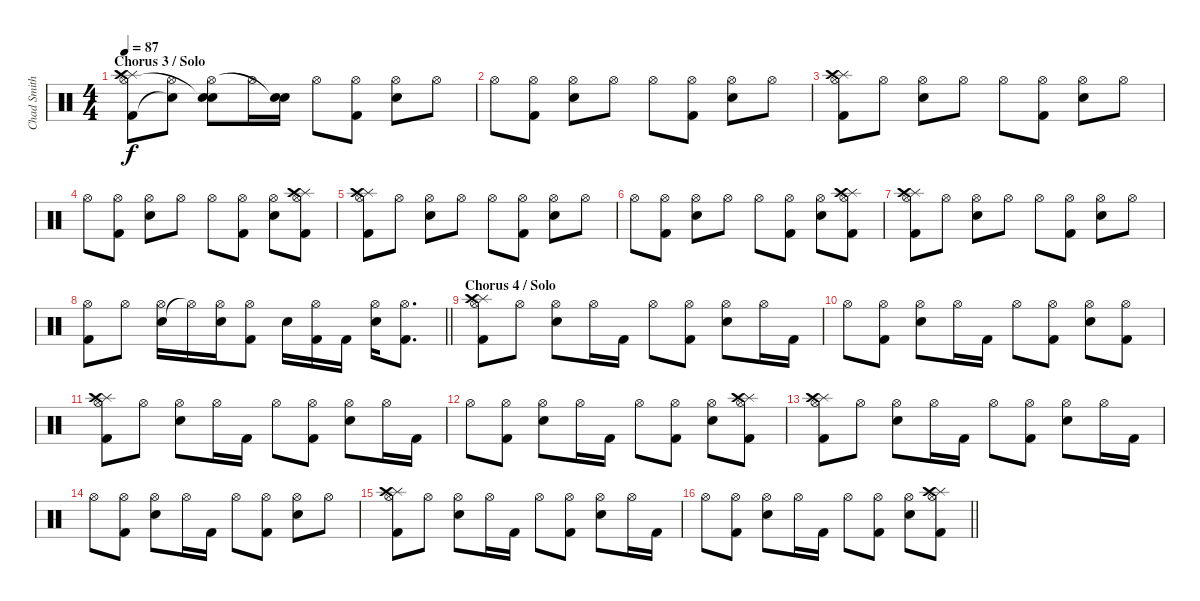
\track ("Chad Smith" "Chad Smith") {instrument percussion}
\staff {score}
\articulation defaults
\ts (4 4)
\section ("" "Chorus 3 / Solo")
\tempo 87
\clef neutral
\ks c
("Splash (hit)" "Kick (hit) 2" "Hi-Hat (open)" "Crash high (hit)").8{dy f} ("Hi-Hat (open)" "Snare (hit)"{t}).8 ("Electric Snare (hit)" "Hi-Hat (open)" "Snare (hit)"{t}).8 "Hi-Hat (open)".16 ("Electric Snare (hit)" "Snare (hit)"{t}).16 "Hi-Hat (open)".8 ("Kick (hit) 2" "Hi-Hat (open)").8 ("Electric Snare (hit)" "Hi-Hat (open)").8 "Hi-Hat (open)".8 |
"Hi-Hat (open)".8 ("Kick (hit) 2" "Hi-Hat (open)").8 ("Electric Snare (hit)" "Hi-Hat (open)").8 "Hi-Hat (open)".8 "Hi-Hat (open)".8 ("Kick (hit) 2" "Hi-Hat (open)").8 ("Electric Snare (hit)" "Hi-Hat (open)").8 "Hi-Hat (open)".8 |
("Splash (hit)" "Kick (hit) 2" "Hi-Hat (open)" "Crash high (hit)").8 "Hi-Hat (open)".8 ("Electric Snare (hit)" "Hi-Hat (open)").8 "Hi-Hat (open)".8 "Hi-Hat (open)".8 ("Kick (hit) 2" "Hi-Hat (open)").8 ("Electric Snare (hit)" "Hi-Hat (open)").8 "Hi-Hat (open)".8 |
"Hi-Hat (open)".8 ("Kick (hit) 2" "Hi-Hat (open)").8 ("Electric Snare (hit)" "Hi-Hat (open)").8 "Hi-Hat (open)".8 "Hi-Hat (open)".8 ("Kick (hit) 2" "Hi-Hat (open)").8 ("Electric Snare (hit)" "Hi-Hat (open)").8 ("Splash (hit)" "Kick (hit) 2" "Hi-Hat (open)" "Crash high (hit)").8 |
("Splash (hit)" "Kick (hit) 2" "Hi-Hat (open)" "Crash high (hit)").8 "Hi-Hat (open)".8 ("Electric Snare (hit)" "Hi-Hat (open)").8 "Hi-Hat (open)".8 "Hi-Hat (open)".8 ("Kick (hit) 2" "Hi-Hat (open)").8 ("Electric Snare (hit)" "Hi-Hat (open)").8 "Hi-Hat (open)".8 |
"Hi-Hat (open)".8 ("Kick (hit) 2" "Hi-Hat (open)").8 ("Electric Snare (hit)" "Hi-Hat (open)").8 "Hi-Hat (open)".8 "Hi-Hat (open)".8 ("Kick (hit) 2" "Hi-Hat (open)").8 ("Electric Snare (hit)" "Hi-Hat (open)").8 ("Splash (hit)" "Kick (hit) 2" "Hi-Hat (open)" "Crash high (hit)").8 |
("Splash (hit)" "Kick (hit) 2" "Hi-Hat (open)" "Crash high (hit)").8 "Hi-Hat (open)".8 ("Electric Snare (hit)" "Hi-Hat (open)").8 "Hi-Hat (open)".8 "Hi-Hat (open)".8 ("Kick (hit) 2" "Hi-Hat (open)").8 ("Electric Snare (hit)" "Hi-Hat (open)").8 "Hi-Hat (open)".8 |
\barLineRight lightlight
("Kick (hit) 2" "Hi-Hat (open)").8 "Hi-Hat (open)".8 ("Electric Snare (hit)" "Hi-Hat (open)").16 "Hi-Hat (open)"{t}.16 ("Electric Snare (hit)" "Hi-Hat (open)").16 ("Kick (hit) 2" "Hi-Hat (open)").8 "Electric Snare (hit)".16 ("Kick (hit) 2" "Hi-Hat (open)").16 "Kick (hit) 2".16 ("Electric Snare (hit)" "Hi-Hat (open)").16 ("Kick (hit) 2" "Hi-Hat (open)").8{d} |
\section ("" "Chorus 4 / Solo")
("Splash (hit)" "Kick (hit) 2" "Hi-Hat (open)" "Crash high (hit)").8 "Hi-Hat (open)".8 ("Electric Snare (hit)" "Hi-Hat (open)").8 "Hi-Hat (open)".16 "Kick (hit) 2".16 "Hi-Hat (open)".8 ("Kick (hit) 2" "Hi-Hat (open)").8 ("Electric Snare (hit)" "Hi-Hat (open)").8 "Hi-Hat (open)".16 "Kick (hit) 2".16 |
"Hi-Hat (open)".8 ("Kick (hit) 2" "Hi-Hat (open)").8 ("Electric Snare (hit)" "Hi-Hat (open)").8 "Hi-Hat (open)".16 "Kick (hit) 2".16 "Hi-Hat (open)".8 ("Kick (hit) 2" "Hi-Hat (open)").8 ("Electric Snare (hit)" "Hi-Hat (open)").8 ("Kick (hit) 2" "Hi-Hat (open)").8 |
("Splash (hit)" "Kick (hit) 2" "Hi-Hat (open)" "Crash high (hit)").8 "Hi-Hat (open)".8 ("Electric Snare (hit)" "Hi-Hat (open)").8 "Hi-Hat (open)".16 "Kick (hit) 2".16 "Hi-Hat (open)".8 ("Kick (hit) 2" "Hi-Hat (open)").8 ("Electric Snare (hit)" "Hi-Hat (open)").8 "Hi-Hat (open)".16 "Kick (hit) 2".16 |
"Hi-Hat (open)".8 ("Kick (hit) 2" "Hi-Hat (open)").8 ("Electric Snare (hit)" "Hi-Hat (open)").8 "Hi-Hat (open)".16 "Kick (hit) 2".16 "Hi-Hat (open)".8 ("Kick (hit) 2" "Hi-Hat (open)").8 ("Electric Snare (hit)" "Hi-Hat (open)").8 ("Splash (hit)" "Kick (hit) 2" "Hi-Hat (open)" "Crash high (hit)").8 |
("Splash (hit)" "Kick (hit) 2" "Hi-Hat (open)" "Crash high (hit)").8 "Hi-Hat (open)".8 ("Electric Snare (hit)" "Hi-Hat (open)").8 "Hi-Hat (open)".16 "Kick (hit) 2".16 "Hi-Hat (open)".8 ("Kick (hit) 2" "Hi-Hat (open)").8 ("Electric Snare (hit)" "Hi-Hat (open)").8 "Hi-Hat (open)".16 "Kick (hit) 2".16 |
"Hi-Hat (open)".8 ("Kick (hit) 2" "Hi-Hat (open)").8 ("Electric Snare (hit)" "Hi-Hat (open)").8 "Hi-Hat (open)".16 "Kick (hit) 2".16 "Hi-Hat (open)".8 ("Kick (hit) 2" "Hi-Hat (open)").8 ("Electric Snare (hit)" "Hi-Hat (open)").8 "Hi-Hat (open)".8 |
("Splash (hit)" "Kick (hit) 2" "Hi-Hat (open)" "Crash high (hit)").8 "Hi-Hat (open)".8 ("Electric Snare (hit)" "Hi-Hat (open)").8 "Hi-Hat (open)".16 "Kick (hit) 2".16 "Hi-Hat (open)".8 ("Kick (hit) 2" "Hi-Hat (open)").8 ("Electric Snare (hit)" "Hi-Hat (open)").8 "Hi-Hat (open)".16 "Kick (hit) 2".16 |
\barLineRight lightlight "Hi-Hat (open)".8
("Kick (hit) 2" "Hi-Hat (open)").8 ("Electric Snare (hit)" "Hi-Hat (open)").8 "Hi-Hat (open)".16 "Kick (hit) 2".16 "Hi-Hat (open)".8 ("Kick (hit) 2" "Hi-Hat (open)").8 ("Electric Snare (hit)" "Hi-Hat (open)").8 ("Splash (hit)" "Kick (hit) 2" "Hi-Hat (open)" "Crash high (hit)").8
